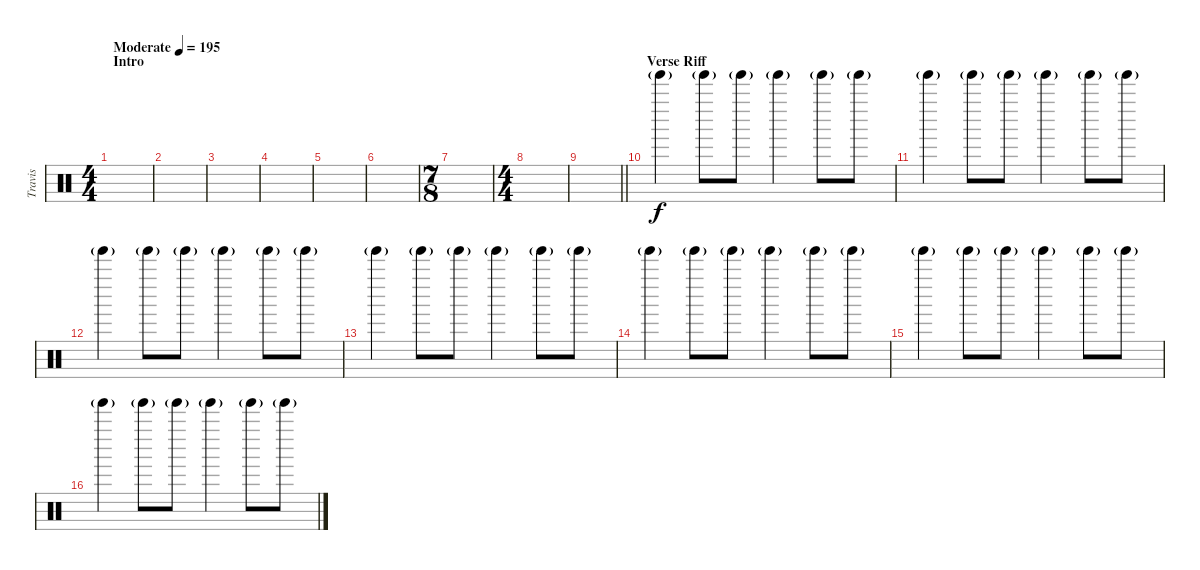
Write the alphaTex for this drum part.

\track ("Travis" "Travis") {instrument percussion}
\staff {score}
\articulation defaults
\ts (4 4)
\section ("" "Intro")
\tempo (195 "Moderate")
\clef neutral
\ks c
|
|
|
|
|
|
\ts (7 8)
|
\ts (4 4)
|
\barLineRight lightlight
|
\section ("" "Verse Riff")
"Tinkle Bell (hit)"{g}.4{volume 8} "Tinkle Bell (hit)"{g}.8 "Tinkle Bell (hit)"{g}.8 "Tinkle Bell (hit)"{g}.4 "Tinkle Bell (hit)"{g}.8 "Tinkle Bell (hit)"{g}.8 |
"Tinkle Bell (hit)"{g}.4 "Tinkle Bell (hit)"{g}.8 "Tinkle Bell (hit)"{g}.8 "Tinkle Bell (hit)"{g}.4 "Tinkle Bell (hit)"{g}.8 "Tinkle Bell (hit)"{g}.8 |
"Tinkle Bell (hit)"{g}.4 "Tinkle Bell (hit)"{g}.8 "Tinkle Bell (hit)"{g}.8 "Tinkle Bell (hit)"{g}.4 "Tinkle Bell (hit)"{g}.8 "Tinkle Bell (hit)"{g}.8 |
"Tinkle Bell (hit)"{g}.4 "Tinkle Bell (hit)"{g}.8 "Tinkle Bell (hit)"{g}.8 "Tinkle Bell (hit)"{g}.4 "Tinkle Bell (hit)"{g}.8 "Tinkle Bell (hit)"{g}.8 |
"Tinkle Bell (hit)"{g}.4 "Tinkle Bell (hit)"{g}.8 "Tinkle Bell (hit)"{g}.8 "Tinkle Bell (hit)"{g}.4 "Tinkle Bell (hit)"{g}.8 "Tinkle Bell (hit)"{g}.8 |
"Tinkle Bell (hit)"{g}.4 "Tinkle Bell (hit)"{g}.8 "Tinkle Bell (hit)"{g}.8 "Tinkle Bell (hit)"{g}.4 "Tinkle Bell (hit)"{g}.8 "Tinkle Bell (hit)"{g}.8 |
"Tinkle Bell (hit)"{g}.4 "Tinkle Bell (hit)"{g}.8 "Tinkle Bell (hit)"{g}.8 "Tinkle Bell (hit)"{g}.4 "Tinkle Bell (hit)"{g}.8 "Tinkle Bell (hit)"{g}.8
